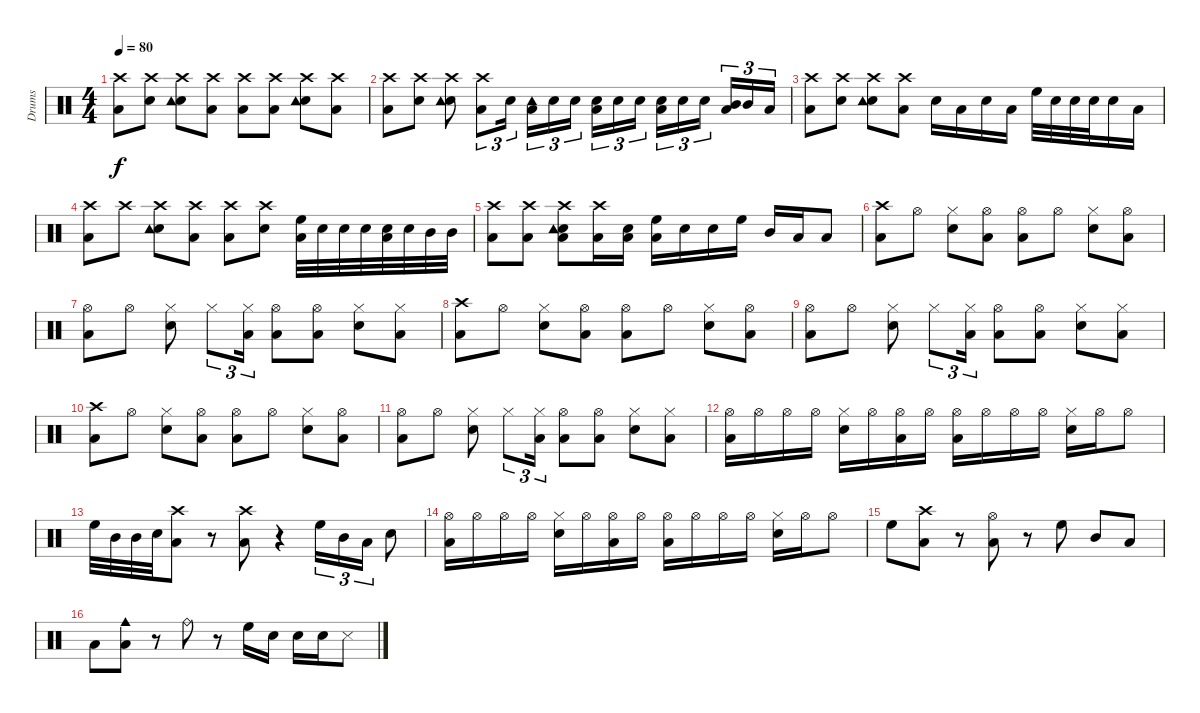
\track ("Drums" "Drums") {instrument percussion}
\staff {score}
\articulation defaults
\ts (4 4)
\tempo 80
\clef neutral
\ks c
("Crash high (hit)" "Low Floor Tom (hit)").8{dy f} ("Crash high (hit)" "Snare (hit) 2").8 ("Crash high (hit)" "Snare (hit) 2" "Tambourine (hit)").8 ("Crash high (hit)" "Low Floor Tom (hit)").8 ("Crash high (hit)" "Low Floor Tom (hit)").8 ("Crash high (hit)" "Low Floor Tom (hit)").8 ("Crash high (hit)" "Snare (hit) 2" "Tambourine (hit)").8 ("Crash high (hit)" "Low Floor Tom (hit)").8 |
("Crash high (hit)" "Low Floor Tom (hit)").8 ("Crash high (hit)" "Snare (hit) 2").8 ("Crash high (hit)" "Snare (hit) 2" "Tambourine (hit)").8 ("Crash high (hit)" "Low Floor Tom (hit)").8{tu (3 2)} "Snare (hit) 2".16{tu (3 2)} ("Tambourine (hit)" "Low Floor Tom (hit)").16{tu (3 2)} "Snare (hit) 2".16{tu (3 2)} "Snare (hit) 2".16{tu (3 2)} ("Snare (hit) 2" "Low Floor Tom (hit)").16{tu (3 2)} "Snare (hit) 2".16{tu (3 2)} "Snare (hit) 2".16{tu (3 2)} ("Snare (hit) 2" "Low Floor Tom (hit)").16{tu (3 2)} "Snare (hit) 2".16{tu (3 2)} "Snare (hit) 2".16{tu (3 2)} ("Mid Tom (hit)" "Low Floor Tom (hit)").16{tu (3 2)} "Mid Tom (hit)".16{tu (3 2)} "Low Tom (hit)".16{tu (3 2)} |
("Crash high (hit)" "Low Floor Tom (hit)").8 ("Crash high (hit)" "Snare (hit) 2").8 ("Crash high (hit)" "Snare (hit) 2" "Tambourine (hit)").8 ("Crash high (hit)" "Low Floor Tom (hit)").8 "Snare (hit) 2".16 "Low Floor Tom (hit)".16 "Snare (hit) 2".16 "Low Floor Tom (hit)".16 "High Floor Tom (hit)".32 "Snare (hit) 2".32 "Snare (hit) 2".32 "Snare (hit) 2".32 "Snare (hit) 2".16 "Low Floor Tom (hit)".16 |
("Crash high (hit)" "Low Floor Tom (hit)").8 "Crash high (hit)".8 ("Crash high (hit)" "Snare (hit) 2" "Tambourine (hit)").8 ("Crash high (hit)" "Low Floor Tom (hit)").8 ("Crash high (hit)" "Low Floor Tom (hit)").8 ("Crash high (hit)" "Snare (hit) 2").8 ("High Floor Tom (hit)" "Low Floor Tom (hit)").32 "Snare (hit) 2".32 "Snare (hit) 2".32 "Snare (hit) 2".32 ("Snare (hit) 2" "Low Floor Tom (hit)").32 "Snare (hit) 2".32 "Mid Tom (hit)".32 "Mid Tom (hit)".32 |
("Crash high (hit)" "Low Floor Tom (hit)").8 ("Crash high (hit)" "Low Floor Tom (hit)").8 ("Crash high (hit)" "Low Floor Tom (hit)" "Snare (hit) 2" "Tambourine (hit)").8 ("Crash high (hit)" "Low Floor Tom (hit)").16 ("Low Floor Tom (hit)" "Snare (hit) 2").16 ("Low Floor Tom (hit)" "High Floor Tom (hit)").16 "Snare (hit) 2".16 "Snare (hit) 2".16 "High Floor Tom (hit)".16 "Mid Tom (hit)".16 "Low Tom (hit)".16 "Low Tom (hit)".8 |
("Crash high (hit)" "Low Floor Tom (hit)").8 "Hi-Hat (open)".8 ("Hi-Hat (closed)" "Snare (hit) 2").8 ("Hi-Hat (open)" "Low Floor Tom (hit)").8 ("Hi-Hat (open)" "Low Floor Tom (hit)").8 "Hi-Hat (open)".8 ("Hi-Hat (closed)" "Snare (hit) 2").8 ("Hi-Hat (open)" "Low Floor Tom (hit)").8 |
("Hi-Hat (open)" "Low Floor Tom (hit)").8 "Hi-Hat (open)".8 ("Hi-Hat (closed)" "Snare (hit) 2").8 "Hi-Hat (closed)".8{tu (3 2)} ("Hi-Hat (closed)" "Low Floor Tom (hit)").16{tu (3 2)} ("Hi-Hat (open)" "Low Floor Tom (hit)").8 ("Hi-Hat (open)" "Low Floor Tom (hit)").8 ("Hi-Hat (closed)" "Snare (hit) 2").8 ("Hi-Hat (closed)" "Low Floor Tom (hit)").8 |
("Crash high (hit)" "Low Floor Tom (hit)").8 "Hi-Hat (open)".8 ("Hi-Hat (closed)" "Snare (hit) 2").8 ("Hi-Hat (open)" "Low Floor Tom (hit)").8 ("Hi-Hat (open)" "Low Floor Tom (hit)").8 "Hi-Hat (open)".8 ("Hi-Hat (closed)" "Snare (hit) 2").8 ("Hi-Hat (open)" "Low Floor Tom (hit)").8 |
("Hi-Hat (open)" "Low Floor Tom (hit)").8 "Hi-Hat (open)".8 ("Hi-Hat (closed)" "Snare (hit) 2").8 "Hi-Hat (closed)".8{tu (3 2)} ("Hi-Hat (closed)" "Low Floor Tom (hit)").16{tu (3 2)} ("Hi-Hat (open)" "Low Floor Tom (hit)").8 ("Hi-Hat (open)" "Low Floor Tom (hit)").8 ("Hi-Hat (closed)" "Snare (hit) 2").8 ("Hi-Hat (closed)" "Low Floor Tom (hit)").8 |
("Crash high (hit)" "Low Floor Tom (hit)").8 "Hi-Hat (open)".8 ("Hi-Hat (closed)" "Snare (hit) 2").8 ("Hi-Hat (open)" "Low Floor Tom (hit)").8 ("Hi-Hat (open)" "Low Floor Tom (hit)").8 "Hi-Hat (open)".8 ("Hi-Hat (closed)" "Snare (hit) 2").8 ("Hi-Hat (open)" "Low Floor Tom (hit)").8 |
("Hi-Hat (open)" "Low Floor Tom (hit)").8 "Hi-Hat (open)".8 ("Hi-Hat (closed)" "Snare (hit) 2").8 "Hi-Hat (closed)".8{tu (3 2)} ("Hi-Hat (closed)" "Low Floor Tom (hit)").16{tu (3 2)} ("Hi-Hat (open)" "Low Floor Tom (hit)").8 ("Hi-Hat (open)" "Low Floor Tom (hit)").8 ("Hi-Hat (closed)" "Snare (hit) 2").8 ("Hi-Hat (closed)" "Low Floor Tom (hit)").8 |
("Hi-Hat (open)" "Low Floor Tom (hit)").16 "Hi-Hat (open)".16 "Hi-Hat (open)".16 "Hi-Hat (open)".16 ("Hi-Hat (closed)" "Snare (hit) 2").16 "Hi-Hat (open)".16 ("Hi-Hat (open)" "Low Floor Tom (hit)").16 "Hi-Hat (open)".16 ("Hi-Hat (open)" "Low Floor Tom (hit)").16 "Hi-Hat (open)".16 "Hi-Hat (open)".16 "Hi-Hat (open)".16 ("Hi-Hat (closed)" "Snare (hit) 2").16 "Hi-Hat (open)".16 "Hi-Hat (open)".8 |
"High Floor Tom (hit)".32 "Mid Tom (hit)".32 "Mid Tom (hit)".32 "Snare (hit) 2".32 ("Crash high (hit)" "Low Floor Tom (hit)").8 r.8 ("Crash high (hit)" "Low Floor Tom (hit)").8 r.4 "High Floor Tom (hit)".16{tu (3 2)} "Mid Tom (hit)".16{tu (3 2)} "Low Floor Tom (hit)".16{tu (3 2)} "Snare (hit) 2".8 |
("Hi-Hat (open)" "Low Floor Tom (hit)").16 "Hi-Hat (open)".16 "Hi-Hat (open)".16 "Hi-Hat (open)".16 ("Hi-Hat (closed)" "Snare (hit) 2").16 "Hi-Hat (open)".16 ("Hi-Hat (open)" "Low Floor Tom (hit)").16 "Hi-Hat (open)".16 ("Hi-Hat (open)" "Low Floor Tom (hit)").16 "Hi-Hat (open)".16 "Hi-Hat (open)".16 "Hi-Hat (open)".16 ("Hi-Hat (closed)" "Snare (hit) 2").16 "Hi-Hat (open)".16 "Hi-Hat (open)".8 |
"High Floor Tom (hit)".8 ("Crash high (hit)" "Low Floor Tom (hit)").8 r.8 ("Hi-Hat (open)" "Low Floor Tom (hit)").8 r.8 "High Floor Tom (hit)".8 "Mid Tom (hit)".8 "Low Floor Tom (hit)".8 |
"Low Floor Tom (hit)".8 ("Cowbell medium (hit)" "Low Floor Tom (hit)").8 r.8 "Ride (bell)".8 r.8 "High Floor Tom (hit)".16 "Snare (hit) 2".16 "Snare (hit) 2".16 "Snare (hit) 2".16 "Snare (side stick) 3".8
